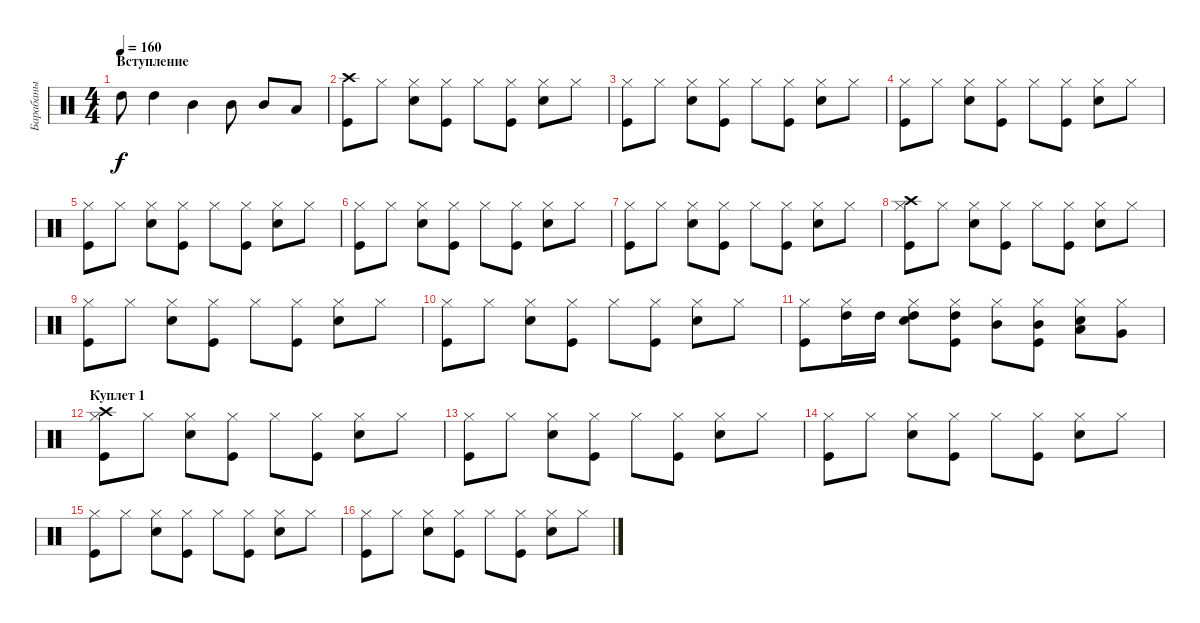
\track ("Барабаны" "Барабаны") {instrument percussion}
\staff {score}
\articulation defaults
\ts (4 4)
\section ("" "Вступление")
\tempo 160
\clef neutral
\ks c "High Tom (hit)".8{dy f} "High Tom (hit)".4 "Mid Tom (hit)".4 "Mid Tom (hit)".8 "Mid Tom (hit)".8 "Low Tom (hit)".8
|
("Kick (hit)" "Crash high (hit)").8 "Hi-Hat (closed)".8 ("Snare (hit) 2" "Hi-Hat (closed)").8 ("Kick (hit)" "Hi-Hat (closed)").8 "Hi-Hat (closed)".8 ("Kick (hit)" "Hi-Hat (closed)").8 ("Snare (hit) 2" "Hi-Hat (closed)").8 "Hi-Hat (closed)".8 |
("Kick (hit)" "Hi-Hat (closed)").8 "Hi-Hat (closed)".8 ("Snare (hit) 2" "Hi-Hat (closed)").8 ("Kick (hit)" "Hi-Hat (closed)").8 "Hi-Hat (closed)".8 ("Kick (hit)" "Hi-Hat (closed)").8 ("Snare (hit) 2" "Hi-Hat (closed)").8 "Hi-Hat (closed)".8 |
("Kick (hit)" "Hi-Hat (closed)").8 "Hi-Hat (closed)".8 ("Snare (hit) 2" "Hi-Hat (closed)").8 ("Kick (hit)" "Hi-Hat (closed)").8 "Hi-Hat (closed)".8 ("Kick (hit)" "Hi-Hat (closed)").8 ("Snare (hit) 2" "Hi-Hat (closed)").8 "Hi-Hat (closed)".8 |
("Kick (hit)" "Hi-Hat (closed)").8 "Hi-Hat (closed)".8 ("Snare (hit) 2" "Hi-Hat (closed)").8 ("Kick (hit)" "Hi-Hat (closed)").8 "Hi-Hat (closed)".8 ("Kick (hit)" "Hi-Hat (closed)").8 ("Snare (hit) 2" "Hi-Hat (closed)").8 "Hi-Hat (closed)".8 |
("Kick (hit)" "Hi-Hat (closed)").8 "Hi-Hat (closed)".8 ("Snare (hit) 2" "Hi-Hat (closed)").8 ("Kick (hit)" "Hi-Hat (closed)").8 "Hi-Hat (closed)".8 ("Kick (hit)" "Hi-Hat (closed)").8 ("Snare (hit) 2" "Hi-Hat (closed)").8 "Hi-Hat (closed)".8 |
("Kick (hit)" "Hi-Hat (closed)").8 "Hi-Hat (closed)".8 ("Snare (hit) 2" "Hi-Hat (closed)").8 ("Kick (hit)" "Hi-Hat (closed)").8 "Hi-Hat (closed)".8 ("Kick (hit)" "Hi-Hat (closed)").8 ("Snare (hit) 2" "Hi-Hat (closed)").8 "Hi-Hat (closed)".8 |
("Kick (hit)" "Crash high (hit)" "Hi-Hat (closed)").8 "Hi-Hat (closed)".8 ("Snare (hit) 2" "Hi-Hat (closed)").8 ("Kick (hit)" "Hi-Hat (closed)").8 "Hi-Hat (closed)".8 ("Kick (hit)" "Hi-Hat (closed)").8 ("Snare (hit) 2" "Hi-Hat (closed)").8 "Hi-Hat (closed)".8 |
("Kick (hit)" "Hi-Hat (closed)").8 "Hi-Hat (closed)".8 ("Snare (hit) 2" "Hi-Hat (closed)").8 ("Kick (hit)" "Hi-Hat (closed)").8 "Hi-Hat (closed)".8 ("Kick (hit)" "Hi-Hat (closed)").8 ("Snare (hit) 2" "Hi-Hat (closed)").8 "Hi-Hat (closed)".8 |
("Kick (hit)" "Hi-Hat (closed)").8 "Hi-Hat (closed)".8 ("Snare (hit) 2" "Hi-Hat (closed)").8 ("Kick (hit)" "Hi-Hat (closed)").8 "Hi-Hat (closed)".8 ("Kick (hit)" "Hi-Hat (closed)").8 ("Snare (hit) 2" "Hi-Hat (closed)").8 "Hi-Hat (closed)".8 |
("Kick (hit)" "Hi-Hat (closed)").8 ("High Tom (hit)" "Hi-Hat (closed)").16 "High Tom (hit)".16 ("Snare (hit) 2" "High Tom (hit)" "Hi-Hat (closed)").8 ("Kick (hit)" "High Tom (hit)" "Hi-Hat (closed)").8 ("Mid Tom (hit)" "Hi-Hat (closed)").8 ("Kick (hit)" "Mid Tom (hit)" "Hi-Hat (closed)").8 ("Snare (hit) 2" "Low Tom (hit)" "Hi-Hat (closed)").8 ("Very Low Tom (hit)" "Hi-Hat (closed)").8 |
\section ("" "Куплет 1")
("Kick (hit)" "Crash high (hit)" "Hi-Hat (closed)").8 "Hi-Hat (closed)".8 ("Snare (hit) 2" "Hi-Hat (closed)").8 ("Kick (hit)" "Hi-Hat (closed)").8 "Hi-Hat (closed)".8 ("Kick (hit)" "Hi-Hat (closed)").8 ("Snare (hit) 2" "Hi-Hat (closed)").8 "Hi-Hat (closed)".8 |
("Kick (hit)" "Hi-Hat (closed)").8 "Hi-Hat (closed)".8 ("Snare (hit) 2" "Hi-Hat (closed)").8 ("Kick (hit)" "Hi-Hat (closed)").8 "Hi-Hat (closed)".8 ("Kick (hit)" "Hi-Hat (closed)").8 ("Snare (hit) 2" "Hi-Hat (closed)").8 "Hi-Hat (closed)".8 |
("Kick (hit)" "Hi-Hat (closed)").8 "Hi-Hat (closed)".8 ("Snare (hit) 2" "Hi-Hat (closed)").8 ("Kick (hit)" "Hi-Hat (closed)").8 "Hi-Hat (closed)".8 ("Kick (hit)" "Hi-Hat (closed)").8 ("Snare (hit) 2" "Hi-Hat (closed)").8 "Hi-Hat (closed)".8 |
("Kick (hit)" "Hi-Hat (closed)").8 "Hi-Hat (closed)".8 ("Snare (hit) 2" "Hi-Hat (closed)").8 ("Kick (hit)" "Hi-Hat (closed)").8 "Hi-Hat (closed)".8 ("Kick (hit)" "Hi-Hat (closed)").8 ("Snare (hit) 2" "Hi-Hat (closed)").8 "Hi-Hat (closed)".8 |
("Kick (hit)" "Hi-Hat (closed)").8 "Hi-Hat (closed)".8 ("Snare (hit) 2" "Hi-Hat (closed)").8 ("Kick (hit)" "Hi-Hat (closed)").8 "Hi-Hat (closed)".8 ("Kick (hit)" "Hi-Hat (closed)").8 ("Snare (hit) 2" "Hi-Hat (closed)").8 "Hi-Hat (closed)".8
